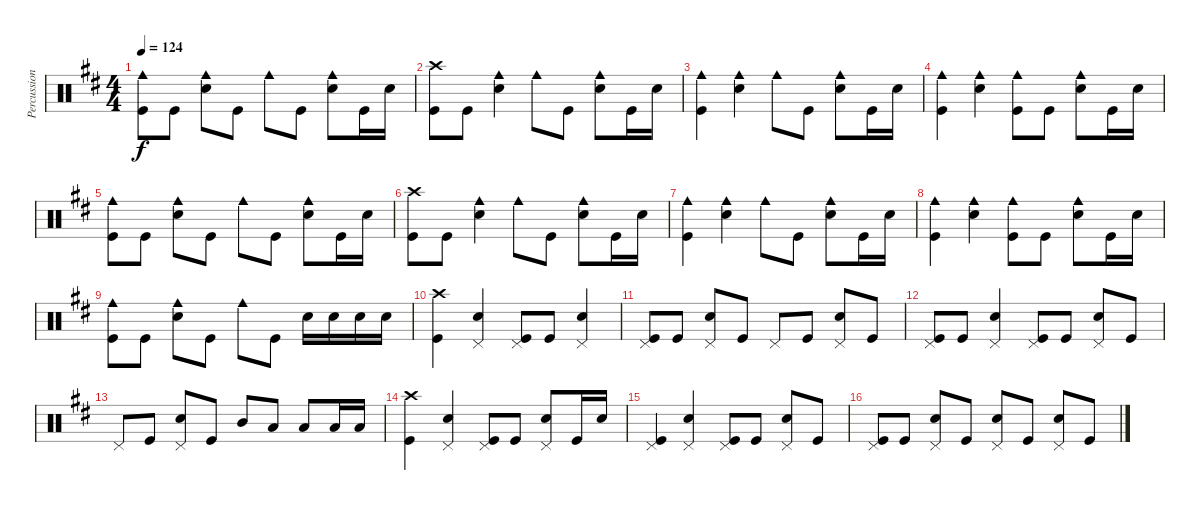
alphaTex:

\track ("Percussion" "Percussion") {instrument percussion}
\staff {score}
\articulation defaults
\ts (4 4)
\tempo 124
\clef neutral
\ks d
("Cowbell medium (hit)" "Kick (hit)").8{dy f} "Kick (hit)".8 ("Cowbell medium (hit)" "Snare (hit) 2").8 "Kick (hit)".8 "Cowbell medium (hit)".8 "Kick (hit)".8 ("Cowbell medium (hit)" "Snare (hit) 2").8 "Kick (hit)".16 "Snare (hit) 2".16 |
("Crash high (hit)" "Kick (hit)").8 "Kick (hit)".8 ("Cowbell medium (hit)" "Snare (hit) 2").4 "Cowbell medium (hit)".8 "Kick (hit)".8 ("Cowbell medium (hit)" "Snare (hit) 2").8 "Kick (hit)".16 "Snare (hit) 2".16 |
("Cowbell medium (hit)" "Kick (hit)").4 ("Cowbell medium (hit)" "Snare (hit) 2").4 "Cowbell medium (hit)".8 "Kick (hit)".8 ("Cowbell medium (hit)" "Snare (hit) 2").8 "Kick (hit)".16 "Snare (hit) 2".16 |
("Cowbell medium (hit)" "Kick (hit)").4 ("Cowbell medium (hit)" "Snare (hit) 2").4 ("Cowbell medium (hit)" "Kick (hit)").8 "Kick (hit)".8 ("Cowbell medium (hit)" "Snare (hit) 2").8 "Kick (hit)".16 "Snare (hit) 2".16 |
("Cowbell medium (hit)" "Kick (hit)").8 "Kick (hit)".8 ("Cowbell medium (hit)" "Snare (hit) 2").8 "Kick (hit)".8 "Cowbell medium (hit)".8 "Kick (hit)".8 ("Cowbell medium (hit)" "Snare (hit) 2").8 "Kick (hit)".16 "Snare (hit) 2".16 |
("Crash high (hit)" "Kick (hit)").8 "Kick (hit)".8 ("Cowbell medium (hit)" "Snare (hit) 2").4 "Cowbell medium (hit)".8 "Kick (hit)".8 ("Cowbell medium (hit)" "Snare (hit) 2").8 "Kick (hit)".16 "Snare (hit) 2".16 |
("Cowbell medium (hit)" "Kick (hit)").4 ("Cowbell medium (hit)" "Snare (hit) 2").4 "Cowbell medium (hit)".8 "Kick (hit)".8 ("Cowbell medium (hit)" "Snare (hit) 2").8 "Kick (hit)".16 "Snare (hit) 2".16 |
("Cowbell medium (hit)" "Kick (hit)").4 ("Cowbell medium (hit)" "Snare (hit) 2").4 ("Cowbell medium (hit)" "Kick (hit)").8 "Kick (hit)".8 ("Cowbell medium (hit)" "Snare (hit) 2").8 "Kick (hit)".16 "Snare (hit) 2".16 |
("Cowbell medium (hit)" "Kick (hit)").8 "Kick (hit)".8 ("Cowbell medium (hit)" "Snare (hit) 2").8 "Kick (hit)".8 "Cowbell medium (hit)".8 "Kick (hit)".8 "Snare (hit) 2".16 "Snare (hit) 2".16 "Snare (hit) 2".16 "Snare (hit) 2".16 |
("Crash high (hit)" "Kick (hit)").4 ("Pedal Hi-Hat (hit)" "Snare (hit) 2").4 ("Pedal Hi-Hat (hit)" "Kick (hit)").8 "Kick (hit)".8 ("Pedal Hi-Hat (hit)" "Snare (hit) 2").4 |
("Pedal Hi-Hat (hit)" "Kick (hit)").8 "Kick (hit)".8 ("Pedal Hi-Hat (hit)" "Snare (hit) 2").8 "Kick (hit)".8 "Pedal Hi-Hat (hit)".8 "Kick (hit)".8 ("Pedal Hi-Hat (hit)" "Snare (hit) 2").8 "Kick (hit)".8 |
("Pedal Hi-Hat (hit)" "Kick (hit)").8 "Kick (hit)".8 ("Pedal Hi-Hat (hit)" "Snare (hit) 2").4 ("Pedal Hi-Hat (hit)" "Kick (hit)").8 "Kick (hit)".8 ("Pedal Hi-Hat (hit)" "Snare (hit) 2").8 "Kick (hit)".8 |
"Pedal Hi-Hat (hit)".8 "Kick (hit)".8 ("Pedal Hi-Hat (hit)" "Snare (hit) 2").8 "Kick (hit)".8 "Mid Tom (hit)".8 "Low Tom (hit)".8 "Low Tom (hit)".8 "Low Tom (hit)".16 "Low Tom (hit)".16 |
("Crash high (hit)" "Kick (hit)").4 ("Pedal Hi-Hat (hit)" "Snare (hit) 2").4 ("Pedal Hi-Hat (hit)" "Kick (hit)").8 "Kick (hit)".8 ("Pedal Hi-Hat (hit)" "Snare (hit) 2").8 "Kick (hit)".16 "Snare (hit) 2".16 |
("Pedal Hi-Hat (hit)" "Kick (hit)").4 ("Pedal Hi-Hat (hit)" "Snare (hit) 2").4 ("Pedal Hi-Hat (hit)" "Kick (hit)").8 "Kick (hit)".8 ("Pedal Hi-Hat (hit)" "Snare (hit) 2").8 "Kick (hit)".8 |
("Pedal Hi-Hat (hit)" "Kick (hit)").8 "Kick (hit)".8 ("Pedal Hi-Hat (hit)" "Snare (hit) 2").8 "Kick (hit)".8 ("Pedal Hi-Hat (hit)" "Snare (hit) 2").8 "Kick (hit)".8 ("Pedal Hi-Hat (hit)" "Snare (hit) 2").8 "Kick (hit)".8
